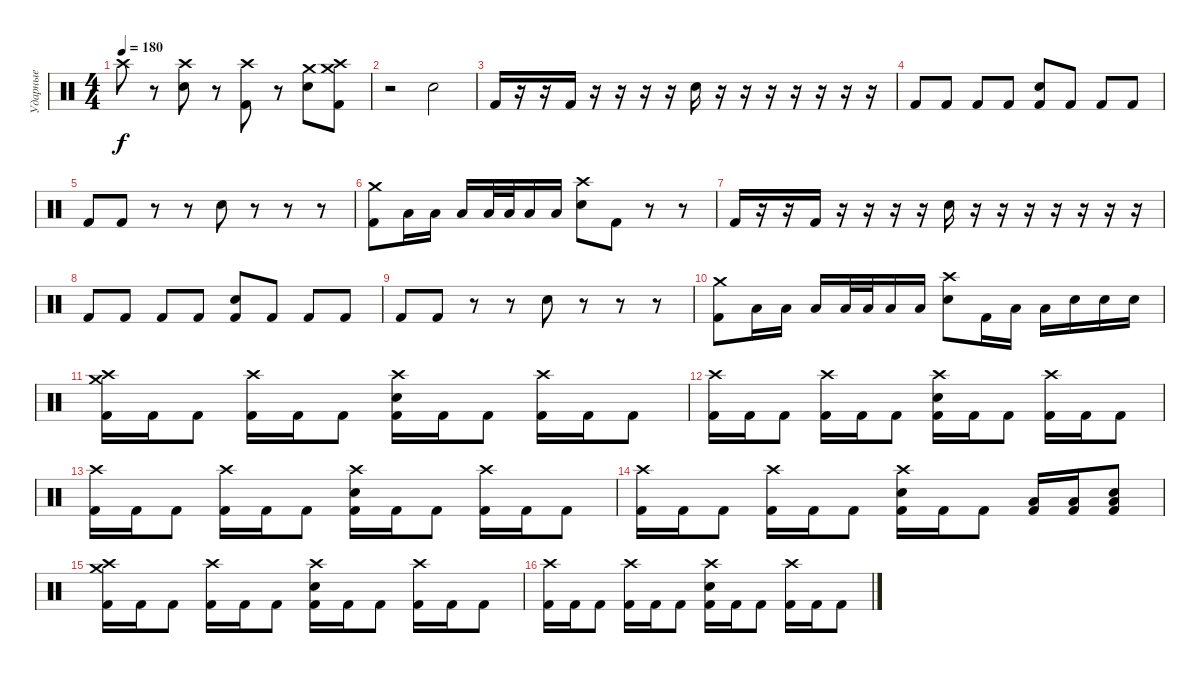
\track ("Ударные" "Ударные") {instrument percussion}
\staff {score}
\articulation defaults
\ts (4 4)
\tempo 180
\clef neutral
\ks c "Crash high (hit)".8{dy f}
r.8 ("Crash high (hit)" "Electric Snare (hit)").8 r.8 ("Crash high (hit)" "Kick (hit) 2").8 r.8 ("Crash medium (hit)" "Electric Snare (hit)").8 ("Crash medium (hit)" "Crash high (hit)" "Kick (hit) 2").8 |
r.2 "Electric Snare (hit)".2 |
"Kick (hit) 2".16 r.16 r.16 "Kick (hit) 2".16 r.16 r.16 r.16 r.16 "Electric Snare (hit)".16 r.16 r.16 r.16 r.16 r.16 r.16 r.16 |
"Kick (hit) 2".8 "Kick (hit) 2".8 "Kick (hit) 2".8 "Kick (hit) 2".8 ("Electric Snare (hit)" "Kick (hit) 2").8 "Kick (hit) 2".8 "Kick (hit) 2".8 "Kick (hit) 2".8 |
"Kick (hit) 2".8 "Kick (hit) 2".8 r.8 r.8 "Electric Snare (hit)".8 r.8 r.8 r.8 |
("Crash medium (hit)" "Kick (hit) 2").8 "Low Tom (hit)".16 "Low Tom (hit)".16 "Low Floor Tom (hit)".16 "Low Tom (hit)".32 "Low Tom (hit)".32 "Low Floor Tom (hit)".16 "Low Floor Tom (hit)".16 ("Crash high (hit)" "Electric Snare (hit)").8 "Kick (hit) 2".8 r.8 r.8 |
"Kick (hit) 2".16 r.16 r.16 "Kick (hit) 2".16 r.16 r.16 r.16 r.16 "Electric Snare (hit)".16 r.16 r.16 r.16 r.16 r.16 r.16 r.16 |
"Kick (hit) 2".8 "Kick (hit) 2".8 "Kick (hit) 2".8 "Kick (hit) 2".8 ("Electric Snare (hit)" "Kick (hit) 2").8 "Kick (hit) 2".8 "Kick (hit) 2".8 "Kick (hit) 2".8 |
"Kick (hit) 2".8 "Kick (hit) 2".8 r.8 r.8 "Electric Snare (hit)".8 r.8 r.8 r.8 |
("Crash medium (hit)" "Kick (hit) 2").8 "Low Tom (hit)".16 "Low Tom (hit)".16 "Low Floor Tom (hit)".16 "Low Tom (hit)".32 "Low Tom (hit)".32 "Low Floor Tom (hit)".16 "Low Floor Tom (hit)".16 ("Crash high (hit)" "Electric Snare (hit)").8 "Kick (hit) 2".16 "Low Tom (hit)".16 "Low Floor Tom (hit)".16 "Electric Snare (hit)".16 "Electric Snare (hit)".16 "Electric Snare (hit)".16 |
("Crash medium (hit)" "Crash high (hit)" "Kick (hit) 2").16 "Kick (hit) 2".16 "Kick (hit) 2".8 ("Crash high (hit)" "Kick (hit) 2").16 "Kick (hit) 2".16 "Kick (hit) 2".8 ("Crash high (hit)" "Electric Snare (hit)" "Kick (hit) 2").16 "Kick (hit) 2".16 "Kick (hit) 2".8 ("Crash high (hit)" "Kick (hit) 2").16 "Kick (hit) 2".16 "Kick (hit) 2".8 |
("Crash high (hit)" "Kick (hit) 2").16 "Kick (hit) 2".16 "Kick (hit) 2".8 ("Crash high (hit)" "Kick (hit) 2").16 "Kick (hit) 2".16 "Kick (hit) 2".8 ("Crash high (hit)" "Electric Snare (hit)" "Kick (hit) 2").16 "Kick (hit) 2".16 "Kick (hit) 2".8 ("Crash high (hit)" "Kick (hit) 2").16 "Kick (hit) 2".16 "Kick (hit) 2".8 |
("Crash high (hit)" "Kick (hit) 2").16 "Kick (hit) 2".16 "Kick (hit) 2".8 ("Crash high (hit)" "Kick (hit) 2").16 "Kick (hit) 2".16 "Kick (hit) 2".8 ("Crash high (hit)" "Electric Snare (hit)" "Kick (hit) 2").16 "Kick (hit) 2".16 "Kick (hit) 2".8 ("Crash high (hit)" "Kick (hit) 2").16 "Kick (hit) 2".16 "Kick (hit) 2".8 |
("Crash high (hit)" "Kick (hit) 2").16 "Kick (hit) 2".16 "Kick (hit) 2".8 ("Crash high (hit)" "Kick (hit) 2").16 "Kick (hit) 2".16 "Kick (hit) 2".8 ("Crash high (hit)" "Electric Snare (hit)" "Kick (hit) 2").16 "Kick (hit) 2".16 "Kick (hit) 2".8 ("Low Tom (hit)" "Kick (hit) 2").16 ("Low Tom (hit)" "Kick (hit) 2").16 ("Low Floor Tom (hit)" "Electric Snare (hit)" "Kick (hit) 2").8 |
("Crash medium (hit)" "Crash high (hit)" "Kick (hit) 2").16 "Kick (hit) 2".16 "Kick (hit) 2".8 ("Crash high (hit)" "Kick (hit) 2").16 "Kick (hit) 2".16 "Kick (hit) 2".8 ("Crash high (hit)" "Electric Snare (hit)" "Kick (hit) 2").16 "Kick (hit) 2".16 "Kick (hit) 2".8 ("Crash high (hit)" "Kick (hit) 2").16 "Kick (hit) 2".16 "Kick (hit) 2".8 |
("Crash high (hit)" "Kick (hit) 2").16 "Kick (hit) 2".16 "Kick (hit) 2".8 ("Crash high (hit)" "Kick (hit) 2").16 "Kick (hit) 2".16 "Kick (hit) 2".8 ("Crash high (hit)" "Electric Snare (hit)" "Kick (hit) 2").16 "Kick (hit) 2".16 "Kick (hit) 2".8 ("Crash high (hit)" "Kick (hit) 2").16 "Kick (hit) 2".16 "Kick (hit) 2".8
